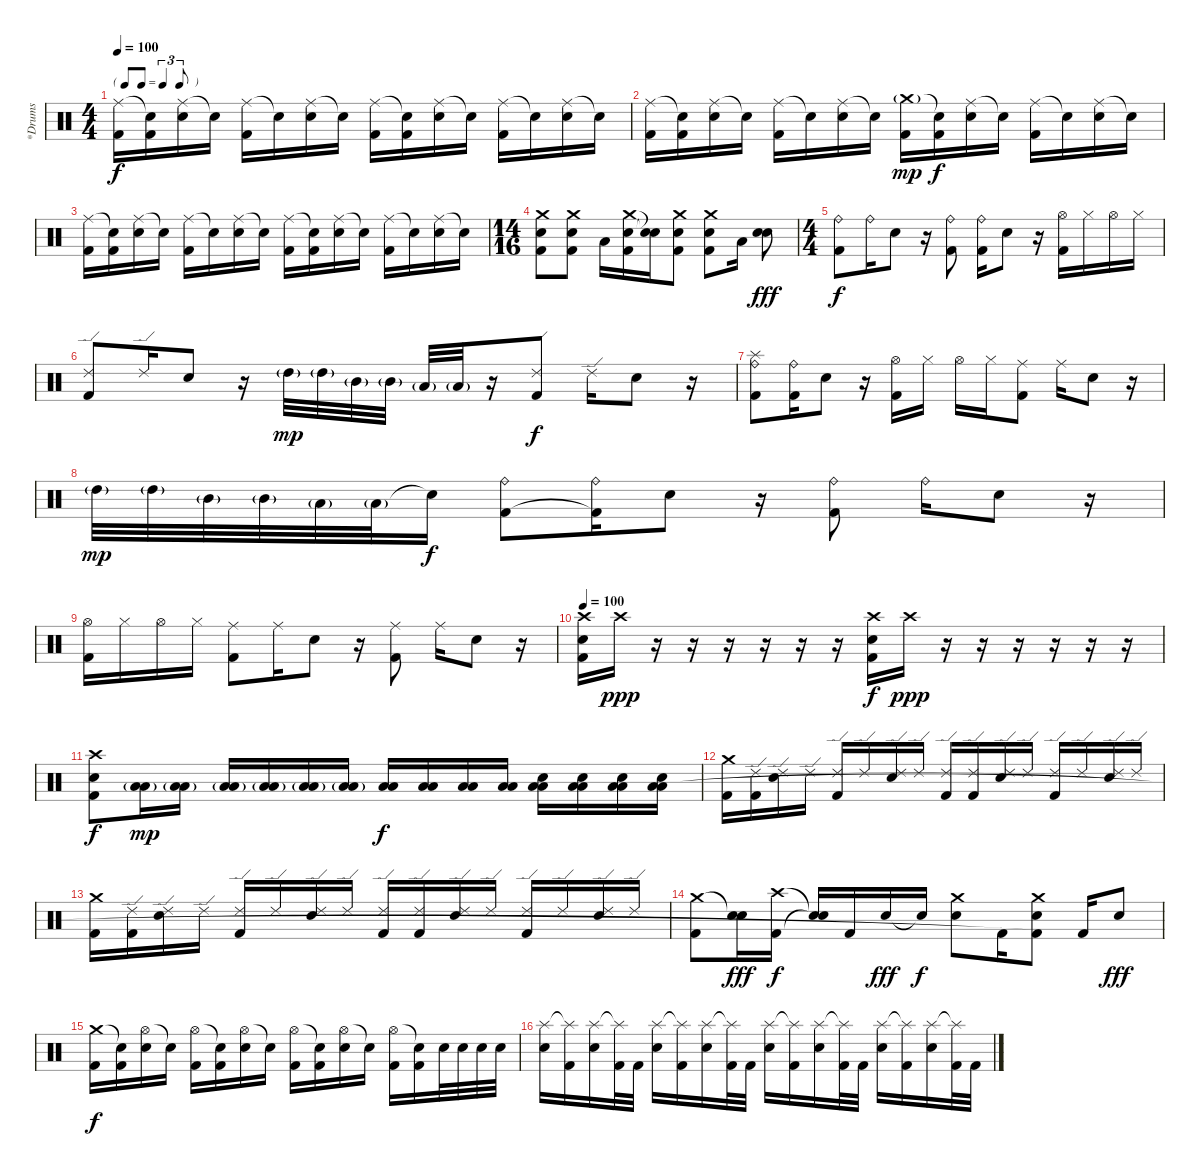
\track ("*Drums" "*Drums") {instrument percussion}
\staff {score}
\articulation defaults
\ts (4 4)
\tf triplet8th
\tempo 100
\clef neutral
\ks c
("Ride (middle)" "Kick (hit) 2").16{dy f} ("Snare (hit)"{t} "Kick (hit) 2").16 ("Ride (middle)" "Electric Snare (hit)").16 "Snare (hit)"{t}.16 ("Ride (middle)" "Kick (hit) 2").16 "Snare (hit)"{t}.16 ("Ride (middle)" "Electric Snare (hit)").16 "Snare (hit)"{t}.16 ("Ride (middle)" "Kick (hit) 2").16 ("Snare (hit)"{t} "Kick (hit) 2").16 ("Ride (middle)" "Electric Snare (hit)").16 "Snare (hit)"{t}.16 ("Ride (middle)" "Kick (hit) 2").16 "Snare (hit)"{t}.16 ("Ride (middle)" "Electric Snare (hit)").16 "Snare (hit)"{t}.16 |
("Ride (middle)" "Kick (hit) 2").16 ("Snare (hit)"{t} "Kick (hit) 2").16 ("Ride (middle)" "Electric Snare (hit)").16 "Snare (hit)"{t}.16 ("Ride (middle)" "Kick (hit) 2").16 "Snare (hit)"{t}.16 ("Ride (middle)" "Electric Snare (hit)").16 "Snare (hit)"{t}.16 ("Crash medium (hit)"{g} "Kick (hit) 2").16{dy mp} ("Snare (hit)"{t} "Kick (hit) 2").16{dy f} ("Ride (middle)" "Electric Snare (hit)").16 "Snare (hit)"{t}.16 ("Ride (middle)" "Kick (hit) 2").16 "Snare (hit)"{t}.16 ("Ride (middle)" "Electric Snare (hit)").16 "Snare (hit)"{t}.16 |
("Ride (middle)" "Kick (hit) 2").16 ("Snare (hit)"{t} "Kick (hit) 2").16 ("Ride (middle)" "Electric Snare (hit)").16 "Snare (hit)"{t}.16 ("Ride (middle)" "Kick (hit) 2").16 "Snare (hit)"{t}.16 ("Ride (middle)" "Electric Snare (hit)").16 "Snare (hit)"{t}.16 ("Ride (middle)" "Kick (hit) 2").16 ("Snare (hit)"{t} "Kick (hit) 2").16 ("Ride (middle)" "Electric Snare (hit)").16 "Snare (hit)"{t}.16 ("Ride (middle)" "Kick (hit) 2").16 "Snare (hit)"{t}.16 ("Ride (middle)" "Electric Snare (hit)").16 "Snare (hit)"{t}.16 |
\ts (14 16)
("Crash medium (hit)" "Electric Snare (hit)" "Kick (hit) 2").8 ("Crash medium (hit)" "Electric Snare (hit)" "Kick (hit) 2").8 "Low Tom (hit)".16 ("Crash medium (hit)" "Electric Snare (hit)" "Kick (hit) 2").16 ("Snare (hit)"{t} "Electric Snare (hit)"{t}).16 ("Crash medium (hit)" "Electric Snare (hit)" "Kick (hit) 2").8 ("Crash medium (hit)" "Electric Snare (hit)" "Kick (hit) 2").8 "Low Tom (hit)".16 ("Electric Snare (hit)" "Electric Snare (hit)").8{dy fff} |
\ts (4 4)
("Ride (bell)" "Kick (hit) 2").8{dy f} "Ride (bell)".16 "Electric Snare (hit)".8 r.16 ("Ride (bell)" "Kick (hit) 2").8 ("Ride (bell)" "Kick (hit) 2").16 "Electric Snare (hit)".8 r.16 ("Hi-Hat (open)" "Kick (hit) 2").16 "Hi-Hat (closed)".16 "Hi-Hat (open)".16 "Hi-Hat (closed)".16 |
("Ride (edge) 2" "Kick (hit) 2").8 "Ride (edge) 2".16 "Electric Snare (hit)".8 r.16 "High Tom (hit)"{g}.32{dy mp} "High Tom (hit)"{g}.32 "Mid Tom (hit)"{g}.32 "Mid Tom (hit)"{g}.32 "Low Tom (hit)"{g}.32 "Low Tom (hit)"{g}.32 r.16 ("Ride (edge) 2" "Kick (hit) 2").8{dy f} "Ride (edge) 2".16 "Electric Snare (hit)".8 r.16 |
("Splash (hit)" "Ride (bell)" "Kick (hit) 2").8 ("Ride (bell)" "Kick (hit) 2").16 "Electric Snare (hit)".8 r.16 ("Hi-Hat (open)" "Kick (hit) 2").16 "Hi-Hat (closed)".16 "Hi-Hat (open)".16 "Hi-Hat (closed)".16 ("Ride (middle)" "Kick (hit) 2").8 "Ride (middle)".16 "Electric Snare (hit)".8 r.16 |
"High Tom (hit)"{g}.32{dy mp} "High Tom (hit)"{g}.32 "Mid Tom (hit)"{g}.32 "Mid Tom (hit)"{g}.32 "Low Tom (hit)"{g}.32 "Low Tom (hit)"{g}.32 "Snare (hit)"{t}.16{dy f} ("Ride (bell)" "Kick (hit) 2").8 ("Ride (bell)" "Kick (hit) 2"{t}).16 "Electric Snare (hit)".8 r.16 ("Ride (bell)" "Kick (hit) 2").8 "Ride (bell)".16 "Electric Snare (hit)".8 r.16 |
("Hi-Hat (open)" "Kick (hit) 2").16 "Hi-Hat (closed)".16 "Hi-Hat (open)".16 "Hi-Hat (closed)".16 ("Ride (middle)" "Kick (hit) 2").8 "Ride (middle)".16 "Electric Snare (hit)".8 r.16 ("Ride (middle)" "Kick (hit) 2").8 "Ride (middle)".16 "Electric Snare (hit)".8 r.16 |
\tempo 100
("Crash high (hit)" "Electric Snare (hit)" "Kick (hit) 2").16 "Crash high (hit)".16{dy ppp} r.16 r.16 r.16 r.16 r.16 r.16 ("Crash high (hit)" "Electric Snare (hit)" "Kick (hit) 2").16{dy f} "Crash high (hit)".16{dy ppp} r.16 r.16 r.16 r.16 r.16 r.16 |
("Crash high (hit)" "Electric Snare (hit)" "Kick (hit) 2").8{dy f} ("Low Tom (hit)"{g} "Low Floor Tom (hit)"{g}).16{dy mp} ("Low Tom (hit)"{g} "Low Floor Tom (hit)"{g}).16 ("Low Tom (hit)"{g} "Low Floor Tom (hit)"{g}).16 ("Low Tom (hit)"{g} "Low Floor Tom (hit)"{g}).16 ("Low Tom (hit)"{g} "Low Floor Tom (hit)"{g}).16 ("Low Tom (hit)"{g} "Low Floor Tom (hit)"{g}).16 ("Low Tom (hit)" "Low Floor Tom (hit)").16{dy f} ("Low Tom (hit)" "Low Floor Tom (hit)").16 ("Low Tom (hit)" "Low Floor Tom (hit)").16 ("Low Tom (hit)" "Low Floor Tom (hit)").16 ("Electric Snare (hit)" "Low Tom (hit)" "Low Floor Tom (hit)").16 ("Electric Snare (hit)" "Low Tom (hit)" "Low Floor Tom (hit)").16 ("Electric Snare (hit)" "Low Tom (hit)" "Low Floor Tom (hit)").16 ("Electric Snare (hit)" "Low Tom (hit)" "Low Floor Tom (hit)").16 |
("Crash medium (hit)" "Kick (hit) 2").16 ("Ride (edge) 2" "Kick (hit) 2").16 ("Ride (edge) 2" "Electric Snare (hit)").16 "Ride (edge) 2".16 ("Ride (edge) 2" "Kick (hit) 2").16 "Ride (edge) 2".16 ("Ride (edge) 2" "Electric Snare (hit)").16 "Ride (edge) 2".16 ("Ride (edge) 2" "Kick (hit) 2").16 ("Ride (edge) 2" "Kick (hit) 2").16 ("Ride (edge) 2" "Electric Snare (hit)").16 "Ride (edge) 2".16 ("Ride (edge) 2" "Kick (hit) 2").16 "Ride (edge) 2".16 ("Ride (edge) 2" "Electric Snare (hit)").16 "Ride (edge) 2".16 |
("Crash medium (hit)" "Kick (hit) 2").16 ("Ride (edge) 2" "Kick (hit) 2").16 ("Ride (edge) 2" "Electric Snare (hit)").16 "Ride (edge) 2".16 ("Ride (edge) 2" "Kick (hit) 2").16 "Ride (edge) 2".16 ("Ride (edge) 2" "Electric Snare (hit)").16 "Ride (edge) 2".16 ("Ride (edge) 2" "Kick (hit) 2").16 ("Ride (edge) 2" "Kick (hit) 2").16 ("Ride (edge) 2" "Electric Snare (hit)").16 "Ride (edge) 2".16 ("Ride (edge) 2" "Kick (hit) 2").16 "Ride (edge) 2".16 ("Ride (edge) 2" "Electric Snare (hit)").16 "Ride (edge) 2".16 |
("Crash medium (hit)" "Kick (hit) 2").8 ("Snare (hit)"{t} "Electric Snare (hit)").16{dy fff} ("Crash high (hit)" "Kick (hit) 2").16{dy f} ("Snare (hit)"{t} "Snare (hit)"{t}).16 "Kick (hit) 2".16 "Electric Snare (hit)".16{dy fff} "Snare (hit)"{t}.16{dy f} ("Crash medium (hit)" "Electric Snare (hit)").8 "Kick (hit) 2".16 ("Crash medium (hit)" "Electric Snare (hit)" "Kick (hit) 2"{t}).8 "Kick (hit) 2".16 "Electric Snare (hit)".8{dy fff} |
("Crash medium (hit)" "Kick (hit) 2").16{dy f} ("Snare (hit)"{t} "Kick (hit) 2").16 ("Hi-Hat (open)" "Electric Snare (hit)").16 "Snare (hit)"{t}.16 ("Hi-Hat (open)" "Kick (hit) 2").16 ("Snare (hit)"{t} "Kick (hit) 2").16 ("Hi-Hat (open)" "Electric Snare (hit)").16 "Snare (hit)"{t}.16 ("Hi-Hat (open)" "Kick (hit) 2").16 ("Snare (hit)"{t} "Kick (hit) 2").16 ("Hi-Hat (open)" "Electric Snare (hit)").16 "Snare (hit)"{t}.16 ("Hi-Hat (open)" "Kick (hit) 2").16 ("Snare (hit)"{t} "Kick (hit) 2").16 "Electric Snare (hit)".32 "Electric Snare (hit)".32 "Electric Snare (hit)".32 "Electric Snare (hit)".32 |
("Splash (hit)" "Electric Snare (hit)").16 ("Splash (hit)"{t} "Kick (hit) 2").16 ("Splash (hit)" "Electric Snare (hit)").16 ("Splash (hit)"{t} "Kick (hit) 2").32 "Kick (hit) 2".32 ("Splash (hit)" "Electric Snare (hit)").16 ("Splash (hit)"{t} "Kick (hit) 2").16 ("Splash (hit)" "Electric Snare (hit)").16 ("Splash (hit)"{t} "Kick (hit) 2").32 "Kick (hit) 2".32 ("Splash (hit)" "Electric Snare (hit)").16 ("Splash (hit)"{t} "Kick (hit) 2").16 ("Splash (hit)" "Electric Snare (hit)").16 ("Splash (hit)"{t} "Kick (hit) 2").32 "Kick (hit) 2".32 ("Splash (hit)" "Electric Snare (hit)").16 ("Splash (hit)"{t} "Kick (hit) 2").16 ("Splash (hit)" "Electric Snare (hit)").16 ("Splash (hit)"{t} "Kick (hit) 2").32 "Kick (hit) 2".32
